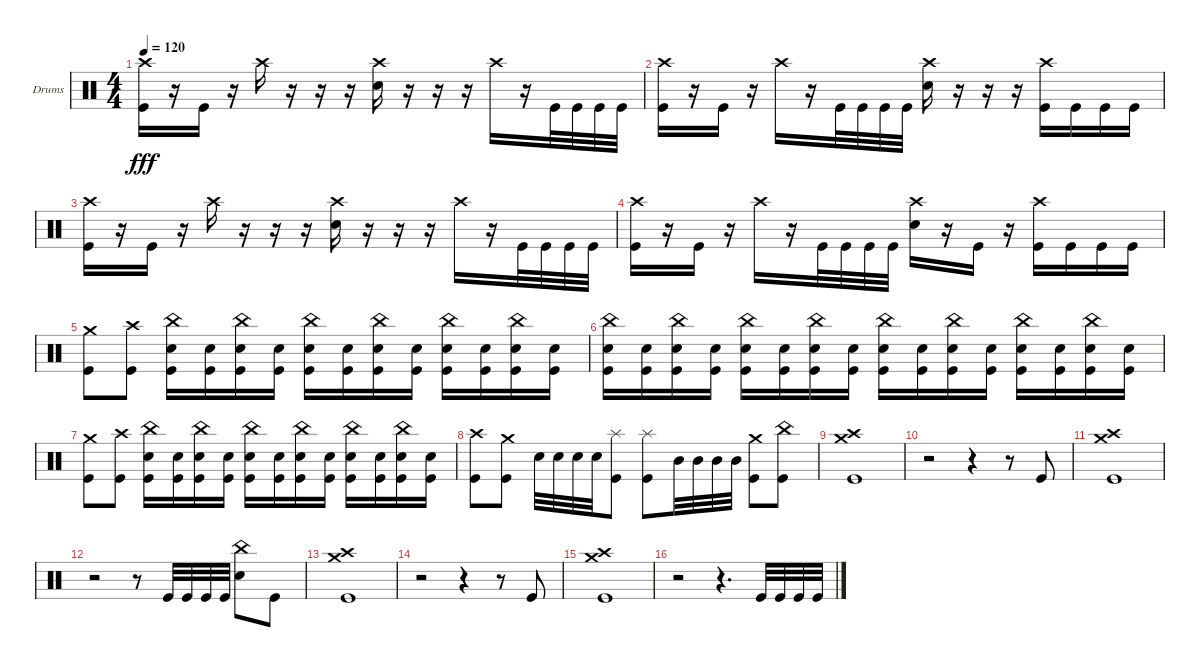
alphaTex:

\bracketExtendMode groupsimilarinstruments
\firstSystemTrackNameOrientation horizontal
\otherSystemsTrackNameOrientation horizontal
\track ("Drumkit" "Drums") {instrument percussion}
\staff {score}
\articulation defaults
\ts (4 4)
\tempo 120
\clef neutral
\ks c
("Kick (hit)" "Crash high (hit)").16{dy fff} r.16 "Kick (hit)".16 r.16 "Crash high (hit)".16 r.16 r.16 r.16 ("Crash high (hit)" "Snare (hit) 2").16 r.16 r.16 r.16 "Crash high (hit)".16 r.16 "Kick (hit)".32 "Kick (hit)".32 "Kick (hit)".32 "Kick (hit)".32 |
("Kick (hit)" "Crash high (hit)").16 r.16 "Kick (hit)".16 r.16 "Crash high (hit)".16 r.16 "Kick (hit)".32 "Kick (hit)".32 "Kick (hit)".32 "Kick (hit)".32 ("Crash high (hit)" "Snare (hit) 2").16 r.16 r.16 r.16 ("Kick (hit)" "Crash high (hit)").16 "Kick (hit)".16 "Kick (hit)".16 "Kick (hit)".16 |
("Kick (hit)" "Crash high (hit)").16 r.16 "Kick (hit)".16 r.16 "Crash high (hit)".16 r.16 r.16 r.16 ("Crash high (hit)" "Snare (hit) 2").16 r.16 r.16 r.16 "Crash high (hit)".16 r.16 "Kick (hit)".32 "Kick (hit)".32 "Kick (hit)".32 "Kick (hit)".32 |
("Kick (hit)" "Crash high (hit)").16 r.16 "Kick (hit)".16 r.16 "Crash high (hit)".16 r.16 "Kick (hit)".32 "Kick (hit)".32 "Kick (hit)".32 "Kick (hit)".32 ("Crash high (hit)" "Snare (hit) 2").16 r.16 "Kick (hit)".16 r.16 ("Kick (hit)" "Crash high (hit)").16 "Kick (hit)".16 "Kick (hit)".16 "Kick (hit)".16 |
("Kick (hit)" "Crash medium (hit)").8 ("Crash high (hit)" "Kick (hit)").8 ("Snare (hit) 2" "China (hit)" "Kick (hit)").16 ("Snare (hit) 2" "Kick (hit)").16 ("Snare (hit) 2" "China (hit)" "Kick (hit)").16 ("Snare (hit) 2" "Kick (hit)").16 ("Snare (hit) 2" "China (hit)" "Kick (hit)").16 ("Snare (hit) 2" "Kick (hit)").16 ("Snare (hit) 2" "China (hit)" "Kick (hit)").16 ("Snare (hit) 2" "Kick (hit)").16 ("Snare (hit) 2" "China (hit)" "Kick (hit)").16 ("Snare (hit) 2" "Kick (hit)").16 ("Snare (hit) 2" "China (hit)" "Kick (hit)").16 ("Snare (hit) 2" "Kick (hit)").16 |
("Snare (hit) 2" "China (hit)" "Kick (hit)").16 ("Snare (hit) 2" "Kick (hit)").16 ("Snare (hit) 2" "China (hit)" "Kick (hit)").16 ("Snare (hit) 2" "Kick (hit)").16 ("Snare (hit) 2" "China (hit)" "Kick (hit)").16 ("Snare (hit) 2" "Kick (hit)").16 ("Snare (hit) 2" "China (hit)" "Kick (hit)").16 ("Snare (hit) 2" "Kick (hit)").16 ("Snare (hit) 2" "China (hit)" "Kick (hit)").16 ("Snare (hit) 2" "Kick (hit)").16 ("Snare (hit) 2" "China (hit)" "Kick (hit)").16 ("Snare (hit) 2" "Kick (hit)").16 ("Snare (hit) 2" "China (hit)" "Kick (hit)").16 ("Snare (hit) 2" "Kick (hit)").16 ("Snare (hit) 2" "China (hit)" "Kick (hit)").16 ("Snare (hit) 2" "Kick (hit)").16 |
("Kick (hit)" "Crash medium (hit)").8 ("Crash high (hit)" "Kick (hit)").8 ("Snare (hit) 2" "China (hit)" "Kick (hit)").16 ("Snare (hit) 2" "Kick (hit)").16 ("Snare (hit) 2" "China (hit)" "Kick (hit)").16 ("Snare (hit) 2" "Kick (hit)").16 ("Snare (hit) 2" "China (hit)" "Kick (hit)").16 ("Snare (hit) 2" "Kick (hit)").16 ("Snare (hit) 2" "China (hit)" "Kick (hit)").16 ("Snare (hit) 2" "Kick (hit)").16 ("Snare (hit) 2" "China (hit)" "Kick (hit)").16 ("Snare (hit) 2" "Kick (hit)").16 ("Snare (hit) 2" "China (hit)" "Kick (hit)").16 ("Snare (hit) 2" "Kick (hit)").16 |
("Kick (hit)" "Crash high (hit)").8 ("Kick (hit)" "Crash medium (hit)").8 "Snare (hit) 2".32 "Snare (hit) 2".32 "Snare (hit) 2".32 "Snare (hit) 2".32 ("Kick (hit)" "Splash (hit)").8 ("Kick (hit)" "Splash (hit)").8 "Mid Tom (hit)".32 "Mid Tom (hit)".32 "Mid Tom (hit)".32 "Mid Tom (hit)".32 ("Kick (hit)" "Crash medium (hit)").8 ("Kick (hit)" "China (hit)").8 |
("Kick (hit)" "Crash medium (hit)" "Crash high (hit)").1 |
r.2 r.4 r.8 "Kick (hit)".8 |
("Kick (hit)" "Crash high (hit)" "Crash medium (hit)").1 |
r.2 r.8 "Kick (hit)".32 "Kick (hit)".32 "Kick (hit)".32 "Kick (hit)".32 ("Snare (hit) 2" "China (hit)").8 "Kick (hit)".8 |
("Kick (hit)" "Crash medium (hit)" "Crash high (hit)").1 |
r.2 r.4 r.8 "Kick (hit)".8 |
("Kick (hit)" "Crash high (hit)" "Crash medium (hit)").1 |
r.2 r.4{d} "Kick (hit)".32 "Kick (hit)".32 "Kick (hit)".32 "Kick (hit)".32
